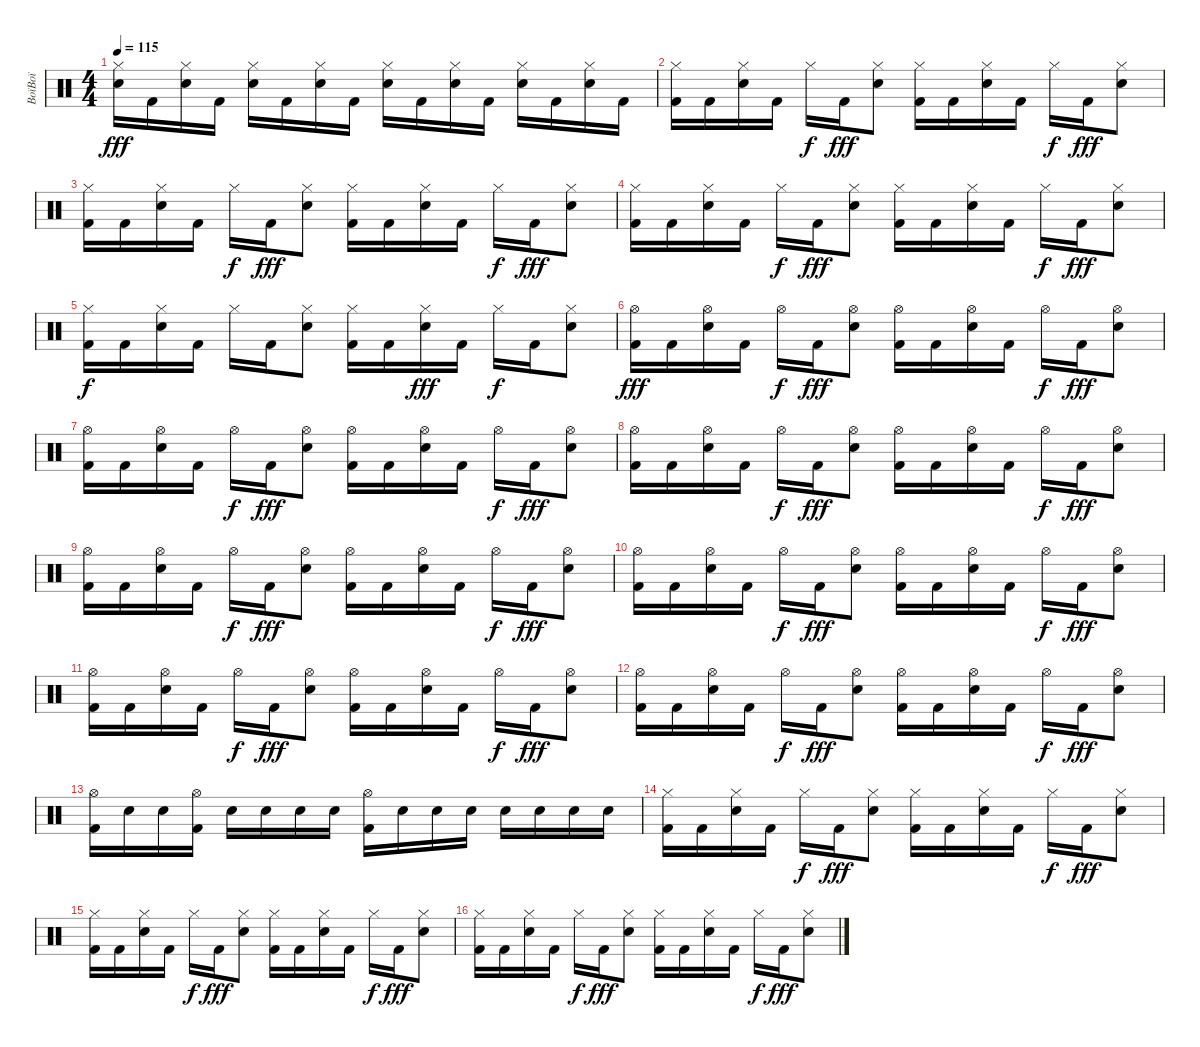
\track ("BoïBoï" "BoïBoï") {instrument percussion}
\staff {score}
\articulation defaults
\ts (4 4)
\tempo 115
\clef neutral
\ks c
("Hi-Hat (closed)" "Electric Snare (hit)").16{dy fff} "Kick (hit) 2".16 ("Hi-Hat (closed)" "Electric Snare (hit)").16 "Kick (hit) 2".16 ("Hi-Hat (closed)" "Electric Snare (hit)").16 "Kick (hit) 2".16 ("Hi-Hat (closed)" "Electric Snare (hit)").16 "Kick (hit) 2".16 ("Hi-Hat (closed)" "Electric Snare (hit)").16 "Kick (hit) 2".16 ("Hi-Hat (closed)" "Electric Snare (hit)").16 "Kick (hit) 2".16 ("Hi-Hat (closed)" "Electric Snare (hit)").16 "Kick (hit) 2".16 ("Hi-Hat (closed)" "Electric Snare (hit)").16 "Kick (hit) 2".16 |
("Hi-Hat (closed)" "Kick (hit) 2").16 "Kick (hit) 2".16 ("Hi-Hat (closed)" "Electric Snare (hit)").16 "Kick (hit) 2".16 "Hi-Hat (closed)".16{dy f} "Kick (hit) 2".16{dy fff} ("Hi-Hat (closed)" "Electric Snare (hit)").8 ("Hi-Hat (closed)" "Kick (hit) 2").16 "Kick (hit) 2".16 ("Hi-Hat (closed)" "Electric Snare (hit)").16 "Kick (hit) 2".16 "Hi-Hat (closed)".16{dy f} "Kick (hit) 2".16{dy fff} ("Hi-Hat (closed)" "Electric Snare (hit)").8 |
("Hi-Hat (closed)" "Kick (hit) 2").16 "Kick (hit) 2".16 ("Hi-Hat (closed)" "Electric Snare (hit)").16 "Kick (hit) 2".16 "Hi-Hat (closed)".16{dy f} "Kick (hit) 2".16{dy fff} ("Hi-Hat (closed)" "Electric Snare (hit)").8 ("Hi-Hat (closed)" "Kick (hit) 2").16 "Kick (hit) 2".16 ("Hi-Hat (closed)" "Electric Snare (hit)").16 "Kick (hit) 2".16 "Hi-Hat (closed)".16{dy f} "Kick (hit) 2".16{dy fff} ("Hi-Hat (closed)" "Electric Snare (hit)").8 |
("Hi-Hat (closed)" "Kick (hit) 2").16 "Kick (hit) 2".16 ("Hi-Hat (closed)" "Electric Snare (hit)").16 "Kick (hit) 2".16 "Hi-Hat (closed)".16{dy f} "Kick (hit) 2".16{dy fff} ("Hi-Hat (closed)" "Electric Snare (hit)").8 ("Hi-Hat (closed)" "Kick (hit) 2").16 "Kick (hit) 2".16 ("Hi-Hat (closed)" "Electric Snare (hit)").16 "Kick (hit) 2".16 "Hi-Hat (closed)".16{dy f} "Kick (hit) 2".16{dy fff} ("Hi-Hat (closed)" "Electric Snare (hit)").8 |
("Hi-Hat (closed)" "Kick (hit) 2").16{dy f} "Kick (hit) 2".16 ("Hi-Hat (closed)" "Electric Snare (hit)").16 "Kick (hit) 2".16 "Hi-Hat (closed)".16 "Kick (hit) 2".16 ("Hi-Hat (closed)" "Electric Snare (hit)").8 ("Hi-Hat (closed)" "Kick (hit) 2").16 "Kick (hit) 2".16 ("Hi-Hat (closed)" "Electric Snare (hit)").16{dy fff} "Kick (hit) 2".16 "Hi-Hat (closed)".16{dy f} "Kick (hit) 2".16 ("Hi-Hat (closed)" "Electric Snare (hit)").8 |
("Hi-Hat (open)" "Kick (hit) 2").16{dy fff} "Kick (hit) 2".16 ("Hi-Hat (open)" "Electric Snare (hit)").16 "Kick (hit) 2".16 "Hi-Hat (open)".16{dy f} "Kick (hit) 2".16{dy fff} ("Hi-Hat (open)" "Electric Snare (hit)").8 ("Hi-Hat (open)" "Kick (hit) 2").16 "Kick (hit) 2".16 ("Hi-Hat (open)" "Electric Snare (hit)").16 "Kick (hit) 2".16 "Hi-Hat (open)".16{dy f} "Kick (hit) 2".16{dy fff} ("Hi-Hat (open)" "Electric Snare (hit)").8 |
("Hi-Hat (open)" "Kick (hit) 2").16 "Kick (hit) 2".16 ("Hi-Hat (open)" "Electric Snare (hit)").16 "Kick (hit) 2".16 "Hi-Hat (open)".16{dy f} "Kick (hit) 2".16{dy fff} ("Hi-Hat (open)" "Electric Snare (hit)").8 ("Hi-Hat (open)" "Kick (hit) 2").16 "Kick (hit) 2".16 ("Hi-Hat (open)" "Electric Snare (hit)").16 "Kick (hit) 2".16 "Hi-Hat (open)".16{dy f} "Kick (hit) 2".16{dy fff} ("Hi-Hat (open)" "Electric Snare (hit)").8 |
("Hi-Hat (open)" "Kick (hit) 2").16 "Kick (hit) 2".16 ("Hi-Hat (open)" "Electric Snare (hit)").16 "Kick (hit) 2".16 "Hi-Hat (open)".16{dy f} "Kick (hit) 2".16{dy fff} ("Hi-Hat (open)" "Electric Snare (hit)").8 ("Hi-Hat (open)" "Kick (hit) 2").16 "Kick (hit) 2".16 ("Hi-Hat (open)" "Electric Snare (hit)").16 "Kick (hit) 2".16 "Hi-Hat (open)".16{dy f} "Kick (hit) 2".16{dy fff} ("Hi-Hat (open)" "Electric Snare (hit)").8 |
("Hi-Hat (open)" "Kick (hit) 2").16 "Kick (hit) 2".16 ("Hi-Hat (open)" "Electric Snare (hit)").16 "Kick (hit) 2".16 "Hi-Hat (open)".16{dy f} "Kick (hit) 2".16{dy fff} ("Hi-Hat (open)" "Electric Snare (hit)").8 ("Hi-Hat (open)" "Kick (hit) 2").16 "Kick (hit) 2".16 ("Hi-Hat (open)" "Electric Snare (hit)").16 "Kick (hit) 2".16 "Hi-Hat (open)".16{dy f} "Kick (hit) 2".16{dy fff} ("Hi-Hat (open)" "Electric Snare (hit)").8 |
("Hi-Hat (open)" "Kick (hit) 2").16 "Kick (hit) 2".16 ("Hi-Hat (open)" "Electric Snare (hit)").16 "Kick (hit) 2".16 "Hi-Hat (open)".16{dy f} "Kick (hit) 2".16{dy fff} ("Hi-Hat (open)" "Electric Snare (hit)").8 ("Hi-Hat (open)" "Kick (hit) 2").16 "Kick (hit) 2".16 ("Hi-Hat (open)" "Electric Snare (hit)").16 "Kick (hit) 2".16 "Hi-Hat (open)".16{dy f} "Kick (hit) 2".16{dy fff} ("Hi-Hat (open)" "Electric Snare (hit)").8 |
("Hi-Hat (open)" "Kick (hit) 2").16 "Kick (hit) 2".16 ("Hi-Hat (open)" "Electric Snare (hit)").16 "Kick (hit) 2".16 "Hi-Hat (open)".16{dy f} "Kick (hit) 2".16{dy fff} ("Hi-Hat (open)" "Electric Snare (hit)").8 ("Hi-Hat (open)" "Kick (hit) 2").16 "Kick (hit) 2".16 ("Hi-Hat (open)" "Electric Snare (hit)").16 "Kick (hit) 2".16 "Hi-Hat (open)".16{dy f} "Kick (hit) 2".16{dy fff} ("Hi-Hat (open)" "Electric Snare (hit)").8 |
("Hi-Hat (open)" "Kick (hit) 2").16 "Kick (hit) 2".16 ("Hi-Hat (open)" "Electric Snare (hit)").16 "Kick (hit) 2".16 "Hi-Hat (open)".16{dy f} "Kick (hit) 2".16{dy fff} ("Hi-Hat (open)" "Electric Snare (hit)").8 ("Hi-Hat (open)" "Kick (hit) 2").16 "Kick (hit) 2".16 ("Hi-Hat (open)" "Electric Snare (hit)").16 "Kick (hit) 2".16 "Hi-Hat (open)".16{dy f} "Kick (hit) 2".16{dy fff} ("Hi-Hat (open)" "Electric Snare (hit)").8 |
("Hi-Hat (open)" "Kick (hit) 2").16 "Electric Snare (hit)".16 "Electric Snare (hit)".16 ("Hi-Hat (open)" "Kick (hit) 2").16 "Electric Snare (hit)".16 "Electric Snare (hit)".16 "Electric Snare (hit)".16 "Electric Snare (hit)".16 ("Hi-Hat (open)" "Kick (hit) 2").16 "Electric Snare (hit)".16 "Electric Snare (hit)".16 "Electric Snare (hit)".16 "Electric Snare (hit)".16 "Electric Snare (hit)".16 "Electric Snare (hit)".16 "Electric Snare (hit)".16 |
("Hi-Hat (closed)" "Kick (hit) 2").16 "Kick (hit) 2".16 ("Hi-Hat (closed)" "Electric Snare (hit)").16 "Kick (hit) 2".16 "Hi-Hat (closed)".16{dy f} "Kick (hit) 2".16{dy fff} ("Hi-Hat (closed)" "Electric Snare (hit)").8 ("Hi-Hat (closed)" "Kick (hit) 2").16 "Kick (hit) 2".16 ("Hi-Hat (closed)" "Electric Snare (hit)").16 "Kick (hit) 2".16 "Hi-Hat (closed)".16{dy f} "Kick (hit) 2".16{dy fff} ("Hi-Hat (closed)" "Electric Snare (hit)").8 |
("Hi-Hat (closed)" "Kick (hit) 2").16 "Kick (hit) 2".16 ("Hi-Hat (closed)" "Electric Snare (hit)").16 "Kick (hit) 2".16 "Hi-Hat (closed)".16{dy f} "Kick (hit) 2".16{dy fff} ("Hi-Hat (closed)" "Electric Snare (hit)").8 ("Hi-Hat (closed)" "Kick (hit) 2").16 "Kick (hit) 2".16 ("Hi-Hat (closed)" "Electric Snare (hit)").16 "Kick (hit) 2".16 "Hi-Hat (closed)".16{dy f} "Kick (hit) 2".16{dy fff} ("Hi-Hat (closed)" "Electric Snare (hit)").8 |
("Hi-Hat (closed)" "Kick (hit) 2").16 "Kick (hit) 2".16 ("Hi-Hat (closed)" "Electric Snare (hit)").16 "Kick (hit) 2".16 "Hi-Hat (closed)".16{dy f} "Kick (hit) 2".16{dy fff} ("Hi-Hat (closed)" "Electric Snare (hit)").8 ("Hi-Hat (closed)" "Kick (hit) 2").16 "Kick (hit) 2".16 ("Hi-Hat (closed)" "Electric Snare (hit)").16 "Kick (hit) 2".16 "Hi-Hat (closed)".16{dy f} "Kick (hit) 2".16{dy fff} ("Hi-Hat (closed)" "Electric Snare (hit)").8
